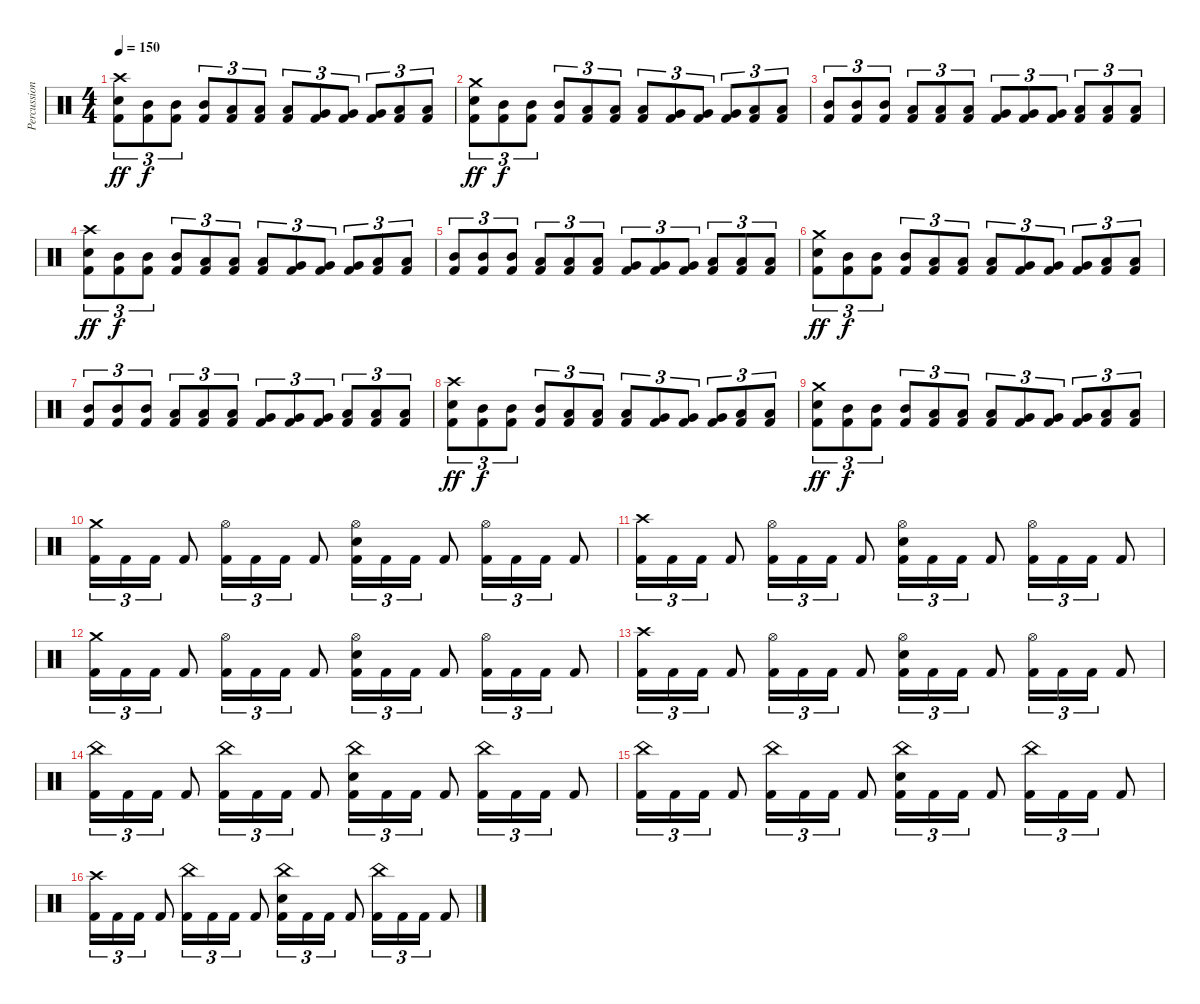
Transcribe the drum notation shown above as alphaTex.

\track ("Percussion" "Percussion") {instrument percussion}
\staff {score}
\articulation defaults
\ts (4 4)
\tempo 150
\clef neutral
\ks c
("Crash high (hit)" "Snare (hit) 2" "Kick (hit) 2").8{tu (3 2) dy ff} ("Mid Tom (hit)" "Kick (hit) 2").8{tu (3 2) dy f} ("Mid Tom (hit)" "Kick (hit) 2").8{tu (3 2)} ("Mid Tom (hit)" "Kick (hit) 2").8{tu (3 2)} ("Low Tom (hit)" "Kick (hit) 2").8{tu (3 2)} ("Low Tom (hit)" "Kick (hit) 2").8{tu (3 2)} ("Low Tom (hit)" "Kick (hit) 2").8{tu (3 2)} ("Very Low Tom (hit)" "Kick (hit) 2").8{tu (3 2)} ("Very Low Tom (hit)" "Kick (hit) 2").8{tu (3 2)} ("Very Low Tom (hit)" "Kick (hit) 2").8{tu (3 2)} ("Low Floor Tom (hit)" "Kick (hit) 2").8{tu (3 2)} ("Low Floor Tom (hit)" "Kick (hit) 2").8{tu (3 2)} |
("Crash medium (hit)" "Snare (hit) 2" "Kick (hit) 2").8{tu (3 2) dy ff} ("Mid Tom (hit)" "Kick (hit) 2").8{tu (3 2) dy f} ("Mid Tom (hit)" "Kick (hit) 2").8{tu (3 2)} ("Mid Tom (hit)" "Kick (hit) 2").8{tu (3 2)} ("Low Tom (hit)" "Kick (hit) 2").8{tu (3 2)} ("Low Tom (hit)" "Kick (hit) 2").8{tu (3 2)} ("Low Tom (hit)" "Kick (hit) 2").8{tu (3 2)} ("Very Low Tom (hit)" "Kick (hit) 2").8{tu (3 2)} ("Very Low Tom (hit)" "Kick (hit) 2").8{tu (3 2)} ("Very Low Tom (hit)" "Kick (hit) 2").8{tu (3 2)} ("Low Floor Tom (hit)" "Kick (hit) 2").8{tu (3 2)} ("Low Floor Tom (hit)" "Kick (hit) 2").8{tu (3 2)} |
("Mid Tom (hit)" "Kick (hit) 2").8{tu (3 2)} ("Mid Tom (hit)" "Kick (hit) 2").8{tu (3 2)} ("Mid Tom (hit)" "Kick (hit) 2").8{tu (3 2)} ("Low Tom (hit)" "Kick (hit) 2").8{tu (3 2)} ("Low Tom (hit)" "Kick (hit) 2").8{tu (3 2)} ("Low Tom (hit)" "Kick (hit) 2").8{tu (3 2)} ("Very Low Tom (hit)" "Kick (hit) 2").8{tu (3 2)} ("Very Low Tom (hit)" "Kick (hit) 2").8{tu (3 2)} ("Very Low Tom (hit)" "Kick (hit) 2").8{tu (3 2)} ("Low Floor Tom (hit)" "Kick (hit) 2").8{tu (3 2)} ("Low Floor Tom (hit)" "Kick (hit) 2").8{tu (3 2)} ("Low Floor Tom (hit)" "Kick (hit) 2").8{tu (3 2)} |
("Crash high (hit)" "Snare (hit) 2" "Kick (hit) 2").8{tu (3 2) dy ff} ("Mid Tom (hit)" "Kick (hit) 2").8{tu (3 2) dy f} ("Mid Tom (hit)" "Kick (hit) 2").8{tu (3 2)} ("Mid Tom (hit)" "Kick (hit) 2").8{tu (3 2)} ("Low Tom (hit)" "Kick (hit) 2").8{tu (3 2)} ("Low Tom (hit)" "Kick (hit) 2").8{tu (3 2)} ("Low Tom (hit)" "Kick (hit) 2").8{tu (3 2)} ("Very Low Tom (hit)" "Kick (hit) 2").8{tu (3 2)} ("Very Low Tom (hit)" "Kick (hit) 2").8{tu (3 2)} ("Very Low Tom (hit)" "Kick (hit) 2").8{tu (3 2)} ("Low Floor Tom (hit)" "Kick (hit) 2").8{tu (3 2)} ("Low Floor Tom (hit)" "Kick (hit) 2").8{tu (3 2)} |
("Mid Tom (hit)" "Kick (hit) 2").8{tu (3 2)} ("Mid Tom (hit)" "Kick (hit) 2").8{tu (3 2)} ("Mid Tom (hit)" "Kick (hit) 2").8{tu (3 2)} ("Low Tom (hit)" "Kick (hit) 2").8{tu (3 2)} ("Low Tom (hit)" "Kick (hit) 2").8{tu (3 2)} ("Low Tom (hit)" "Kick (hit) 2").8{tu (3 2)} ("Very Low Tom (hit)" "Kick (hit) 2").8{tu (3 2)} ("Very Low Tom (hit)" "Kick (hit) 2").8{tu (3 2)} ("Very Low Tom (hit)" "Kick (hit) 2").8{tu (3 2)} ("Low Floor Tom (hit)" "Kick (hit) 2").8{tu (3 2)} ("Low Floor Tom (hit)" "Kick (hit) 2").8{tu (3 2)} ("Low Floor Tom (hit)" "Kick (hit) 2").8{tu (3 2)} |
("Crash medium (hit)" "Snare (hit) 2" "Kick (hit) 2").8{tu (3 2) dy ff} ("Mid Tom (hit)" "Kick (hit) 2").8{tu (3 2) dy f} ("Mid Tom (hit)" "Kick (hit) 2").8{tu (3 2)} ("Mid Tom (hit)" "Kick (hit) 2").8{tu (3 2)} ("Low Tom (hit)" "Kick (hit) 2").8{tu (3 2)} ("Low Tom (hit)" "Kick (hit) 2").8{tu (3 2)} ("Low Tom (hit)" "Kick (hit) 2").8{tu (3 2)} ("Very Low Tom (hit)" "Kick (hit) 2").8{tu (3 2)} ("Very Low Tom (hit)" "Kick (hit) 2").8{tu (3 2)} ("Very Low Tom (hit)" "Kick (hit) 2").8{tu (3 2)} ("Low Floor Tom (hit)" "Kick (hit) 2").8{tu (3 2)} ("Low Floor Tom (hit)" "Kick (hit) 2").8{tu (3 2)} |
("Mid Tom (hit)" "Kick (hit) 2").8{tu (3 2)} ("Mid Tom (hit)" "Kick (hit) 2").8{tu (3 2)} ("Mid Tom (hit)" "Kick (hit) 2").8{tu (3 2)} ("Low Tom (hit)" "Kick (hit) 2").8{tu (3 2)} ("Low Tom (hit)" "Kick (hit) 2").8{tu (3 2)} ("Low Tom (hit)" "Kick (hit) 2").8{tu (3 2)} ("Very Low Tom (hit)" "Kick (hit) 2").8{tu (3 2)} ("Very Low Tom (hit)" "Kick (hit) 2").8{tu (3 2)} ("Very Low Tom (hit)" "Kick (hit) 2").8{tu (3 2)} ("Low Floor Tom (hit)" "Kick (hit) 2").8{tu (3 2)} ("Low Floor Tom (hit)" "Kick (hit) 2").8{tu (3 2)} ("Low Floor Tom (hit)" "Kick (hit) 2").8{tu (3 2)} |
("Crash high (hit)" "Snare (hit) 2" "Kick (hit) 2").8{tu (3 2) dy ff} ("Mid Tom (hit)" "Kick (hit) 2").8{tu (3 2) dy f} ("Mid Tom (hit)" "Kick (hit) 2").8{tu (3 2)} ("Mid Tom (hit)" "Kick (hit) 2").8{tu (3 2)} ("Low Tom (hit)" "Kick (hit) 2").8{tu (3 2)} ("Low Tom (hit)" "Kick (hit) 2").8{tu (3 2)} ("Low Tom (hit)" "Kick (hit) 2").8{tu (3 2)} ("Very Low Tom (hit)" "Kick (hit) 2").8{tu (3 2)} ("Very Low Tom (hit)" "Kick (hit) 2").8{tu (3 2)} ("Very Low Tom (hit)" "Kick (hit) 2").8{tu (3 2)} ("Low Floor Tom (hit)" "Kick (hit) 2").8{tu (3 2)} ("Low Floor Tom (hit)" "Kick (hit) 2").8{tu (3 2)} |
("Crash medium (hit)" "Snare (hit) 2" "Kick (hit) 2").8{tu (3 2) dy ff} ("Mid Tom (hit)" "Kick (hit) 2").8{tu (3 2) dy f} ("Mid Tom (hit)" "Kick (hit) 2").8{tu (3 2)} ("Mid Tom (hit)" "Kick (hit) 2").8{tu (3 2)} ("Low Tom (hit)" "Kick (hit) 2").8{tu (3 2)} ("Low Tom (hit)" "Kick (hit) 2").8{tu (3 2)} ("Low Tom (hit)" "Kick (hit) 2").8{tu (3 2)} ("Very Low Tom (hit)" "Kick (hit) 2").8{tu (3 2)} ("Very Low Tom (hit)" "Kick (hit) 2").8{tu (3 2)} ("Very Low Tom (hit)" "Kick (hit) 2").8{tu (3 2)} ("Low Floor Tom (hit)" "Kick (hit) 2").8{tu (3 2)} ("Low Floor Tom (hit)" "Kick (hit) 2").8{tu (3 2)} |
("Crash medium (hit)" "Kick (hit) 2").16{tu (3 2)} "Kick (hit) 2".16{tu (3 2)} "Kick (hit) 2".16{tu (3 2)} "Kick (hit) 2".8 ("Hi-Hat (open)" "Kick (hit) 2").16{tu (3 2)} "Kick (hit) 2".16{tu (3 2)} "Kick (hit) 2".16{tu (3 2)} "Kick (hit) 2".8 ("Hi-Hat (open)" "Snare (hit) 2" "Kick (hit) 2").16{tu (3 2)} "Kick (hit) 2".16{tu (3 2)} "Kick (hit) 2".16{tu (3 2)} "Kick (hit) 2".8 ("Hi-Hat (open)" "Kick (hit) 2").16{tu (3 2)} "Kick (hit) 2".16{tu (3 2)} "Kick (hit) 2".16{tu (3 2)} "Kick (hit) 2".8 |
("Crash high (hit)" "Kick (hit) 2").16{tu (3 2)} "Kick (hit) 2".16{tu (3 2)} "Kick (hit) 2".16{tu (3 2)} "Kick (hit) 2".8 ("Hi-Hat (open)" "Kick (hit) 2").16{tu (3 2)} "Kick (hit) 2".16{tu (3 2)} "Kick (hit) 2".16{tu (3 2)} "Kick (hit) 2".8 ("Hi-Hat (open)" "Snare (hit) 2" "Kick (hit) 2").16{tu (3 2)} "Kick (hit) 2".16{tu (3 2)} "Kick (hit) 2".16{tu (3 2)} "Kick (hit) 2".8 ("Hi-Hat (open)" "Kick (hit) 2").16{tu (3 2)} "Kick (hit) 2".16{tu (3 2)} "Kick (hit) 2".16{tu (3 2)} "Kick (hit) 2".8 |
("Crash medium (hit)" "Kick (hit) 2").16{tu (3 2)} "Kick (hit) 2".16{tu (3 2)} "Kick (hit) 2".16{tu (3 2)} "Kick (hit) 2".8 ("Hi-Hat (open)" "Kick (hit) 2").16{tu (3 2)} "Kick (hit) 2".16{tu (3 2)} "Kick (hit) 2".16{tu (3 2)} "Kick (hit) 2".8 ("Hi-Hat (open)" "Snare (hit) 2" "Kick (hit) 2").16{tu (3 2)} "Kick (hit) 2".16{tu (3 2)} "Kick (hit) 2".16{tu (3 2)} "Kick (hit) 2".8 ("Hi-Hat (open)" "Kick (hit) 2").16{tu (3 2)} "Kick (hit) 2".16{tu (3 2)} "Kick (hit) 2".16{tu (3 2)} "Kick (hit) 2".8 |
("Crash high (hit)" "Kick (hit) 2").16{tu (3 2)} "Kick (hit) 2".16{tu (3 2)} "Kick (hit) 2".16{tu (3 2)} "Kick (hit) 2".8 ("Hi-Hat (open)" "Kick (hit) 2").16{tu (3 2)} "Kick (hit) 2".16{tu (3 2)} "Kick (hit) 2".16{tu (3 2)} "Kick (hit) 2".8 ("Hi-Hat (open)" "Snare (hit) 2" "Kick (hit) 2").16{tu (3 2)} "Kick (hit) 2".16{tu (3 2)} "Kick (hit) 2".16{tu (3 2)} "Kick (hit) 2".8 ("Hi-Hat (open)" "Kick (hit) 2").16{tu (3 2)} "Kick (hit) 2".16{tu (3 2)} "Kick (hit) 2".16{tu (3 2)} "Kick (hit) 2".8 |
("China (hit)" "Kick (hit) 2").16{tu (3 2)} "Kick (hit) 2".16{tu (3 2)} "Kick (hit) 2".16{tu (3 2)} "Kick (hit) 2".8 ("China (hit)" "Kick (hit) 2").16{tu (3 2)} "Kick (hit) 2".16{tu (3 2)} "Kick (hit) 2".16{tu (3 2)} "Kick (hit) 2".8 ("China (hit)" "Snare (hit) 2" "Kick (hit) 2").16{tu (3 2)} "Kick (hit) 2".16{tu (3 2)} "Kick (hit) 2".16{tu (3 2)} "Kick (hit) 2".8 ("China (hit)" "Kick (hit) 2").16{tu (3 2)} "Kick (hit) 2".16{tu (3 2)} "Kick (hit) 2".16{tu (3 2)} "Kick (hit) 2".8 |
("China (hit)" "Kick (hit) 2").16{tu (3 2)} "Kick (hit) 2".16{tu (3 2)} "Kick (hit) 2".16{tu (3 2)} "Kick (hit) 2".8 ("China (hit)" "Kick (hit) 2").16{tu (3 2)} "Kick (hit) 2".16{tu (3 2)} "Kick (hit) 2".16{tu (3 2)} "Kick (hit) 2".8 ("China (hit)" "Snare (hit) 2" "Kick (hit) 2").16{tu (3 2)} "Kick (hit) 2".16{tu (3 2)} "Kick (hit) 2".16{tu (3 2)} "Kick (hit) 2".8 ("China (hit)" "Kick (hit) 2").16{tu (3 2)} "Kick (hit) 2".16{tu (3 2)} "Kick (hit) 2".16{tu (3 2)} "Kick (hit) 2".8 |
("Crash high (hit)" "Kick (hit) 2").16{tu (3 2)} "Kick (hit) 2".16{tu (3 2)} "Kick (hit) 2".16{tu (3 2)} "Kick (hit) 2".8 ("China (hit)" "Kick (hit) 2").16{tu (3 2)} "Kick (hit) 2".16{tu (3 2)} "Kick (hit) 2".16{tu (3 2)} "Kick (hit) 2".8 ("China (hit)" "Snare (hit) 2" "Kick (hit) 2").16{tu (3 2)} "Kick (hit) 2".16{tu (3 2)} "Kick (hit) 2".16{tu (3 2)} "Kick (hit) 2".8 ("China (hit)" "Kick (hit) 2").16{tu (3 2)} "Kick (hit) 2".16{tu (3 2)} "Kick (hit) 2".16{tu (3 2)} "Kick (hit) 2".8
